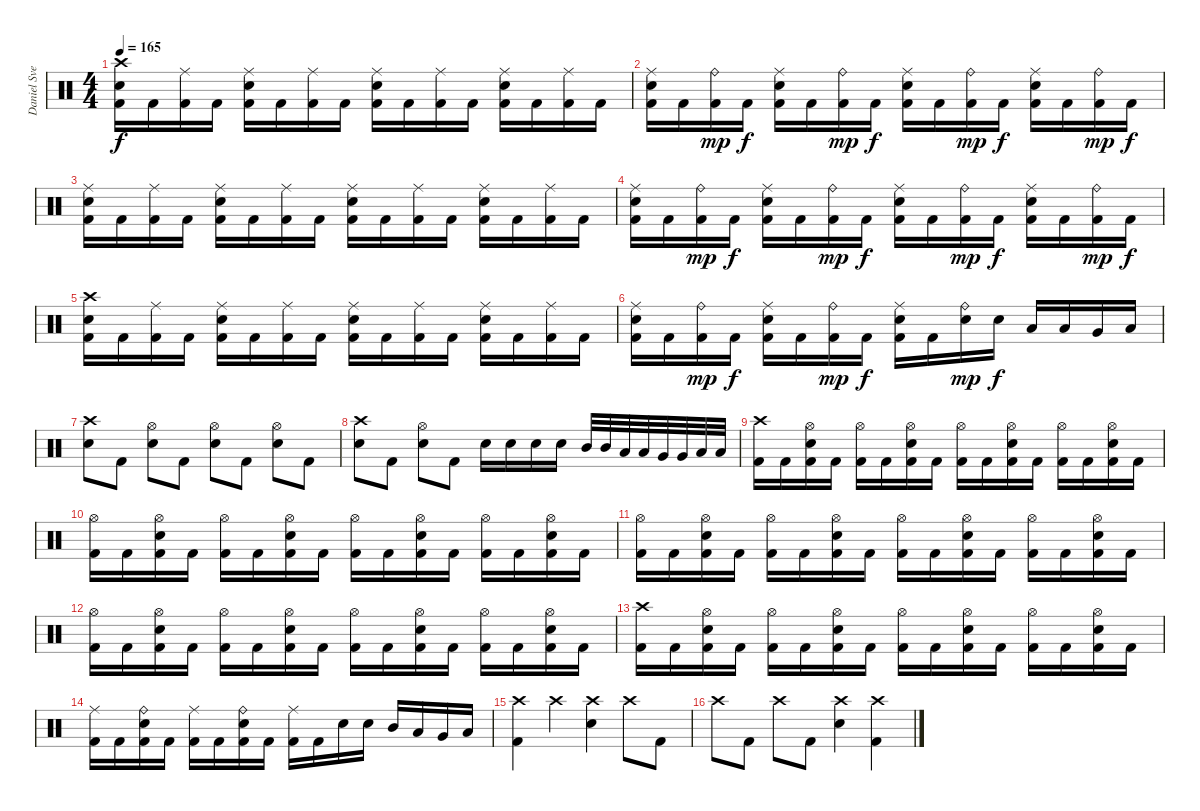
\track ("Daniel Svensson" "Daniel Sve") {instrument percussion}
\staff {score}
\articulation defaults
\ts (4 4)
\tempo 165
\clef neutral
\ks c
("Crash high (hit)" "Electric Snare (hit)" "Kick (hit) 2").16{dy f} "Kick (hit) 2".16 ("Ride (middle)" "Kick (hit) 2").16 "Kick (hit) 2".16 ("Ride (middle)" "Electric Snare (hit)" "Kick (hit) 2").16 "Kick (hit) 2".16 ("Ride (middle)" "Kick (hit) 2").16 "Kick (hit) 2".16 ("Ride (middle)" "Electric Snare (hit)" "Kick (hit) 2").16 "Kick (hit) 2".16 ("Ride (middle)" "Kick (hit) 2").16 "Kick (hit) 2".16 ("Ride (middle)" "Electric Snare (hit)" "Kick (hit) 2").16 "Kick (hit) 2".16 ("Ride (middle)" "Kick (hit) 2").16 "Kick (hit) 2".16 |
("Ride (middle)" "Electric Snare (hit)" "Kick (hit) 2").16 "Kick (hit) 2".16 ("Ride (bell)" "Kick (hit) 2").16{dy mp} "Kick (hit) 2".16{dy f} ("Ride (middle)" "Electric Snare (hit)" "Kick (hit) 2").16 "Kick (hit) 2".16 ("Ride (bell)" "Kick (hit) 2").16{dy mp} "Kick (hit) 2".16{dy f} ("Ride (middle)" "Electric Snare (hit)" "Kick (hit) 2").16 "Kick (hit) 2".16 ("Ride (bell)" "Kick (hit) 2").16{dy mp} "Kick (hit) 2".16{dy f} ("Ride (middle)" "Electric Snare (hit)" "Kick (hit) 2").16 "Kick (hit) 2".16 ("Ride (bell)" "Kick (hit) 2").16{dy mp} "Kick (hit) 2".16{dy f} |
("Ride (middle)" "Electric Snare (hit)" "Kick (hit) 2").16 "Kick (hit) 2".16 ("Ride (middle)" "Kick (hit) 2").16 "Kick (hit) 2".16 ("Ride (middle)" "Electric Snare (hit)" "Kick (hit) 2").16 "Kick (hit) 2".16 ("Ride (middle)" "Kick (hit) 2").16 "Kick (hit) 2".16 ("Ride (middle)" "Electric Snare (hit)" "Kick (hit) 2").16 "Kick (hit) 2".16 ("Ride (middle)" "Kick (hit) 2").16 "Kick (hit) 2".16 ("Ride (middle)" "Electric Snare (hit)" "Kick (hit) 2").16 "Kick (hit) 2".16 ("Ride (middle)" "Kick (hit) 2").16 "Kick (hit) 2".16 |
("Ride (middle)" "Electric Snare (hit)" "Kick (hit) 2").16 "Kick (hit) 2".16 ("Ride (bell)" "Kick (hit) 2").16{dy mp} "Kick (hit) 2".16{dy f} ("Ride (middle)" "Electric Snare (hit)" "Kick (hit) 2").16 "Kick (hit) 2".16 ("Ride (bell)" "Kick (hit) 2").16{dy mp} "Kick (hit) 2".16{dy f} ("Ride (middle)" "Electric Snare (hit)" "Kick (hit) 2").16 "Kick (hit) 2".16 ("Ride (bell)" "Kick (hit) 2").16{dy mp} "Kick (hit) 2".16{dy f} ("Ride (middle)" "Electric Snare (hit)" "Kick (hit) 2").16 "Kick (hit) 2".16 ("Ride (bell)" "Kick (hit) 2").16{dy mp} "Kick (hit) 2".16{dy f} |
("Crash high (hit)" "Electric Snare (hit)" "Kick (hit) 2").16 "Kick (hit) 2".16 ("Ride (middle)" "Kick (hit) 2").16 "Kick (hit) 2".16 ("Ride (middle)" "Electric Snare (hit)" "Kick (hit) 2").16 "Kick (hit) 2".16 ("Ride (middle)" "Kick (hit) 2").16 "Kick (hit) 2".16 ("Ride (middle)" "Electric Snare (hit)" "Kick (hit) 2").16 "Kick (hit) 2".16 ("Ride (middle)" "Kick (hit) 2").16 "Kick (hit) 2".16 ("Ride (middle)" "Electric Snare (hit)" "Kick (hit) 2").16 "Kick (hit) 2".16 ("Ride (middle)" "Kick (hit) 2").16 "Kick (hit) 2".16 |
("Ride (middle)" "Electric Snare (hit)" "Kick (hit) 2").16 "Kick (hit) 2".16 ("Ride (bell)" "Kick (hit) 2").16{dy mp} "Kick (hit) 2".16{dy f} ("Ride (middle)" "Electric Snare (hit)" "Kick (hit) 2").16 "Kick (hit) 2".16 ("Ride (bell)" "Kick (hit) 2").16{dy mp} "Kick (hit) 2".16{dy f} ("Ride (middle)" "Electric Snare (hit)" "Kick (hit) 2").16 "Kick (hit) 2".16 ("Ride (bell)" "Electric Snare (hit)").16{dy mp} "Electric Snare (hit)".16{dy f} "Low Tom (hit)".16 "Low Tom (hit)".16 "Very Low Tom (hit)".16 "Low Floor Tom (hit)".16 |
("Crash high (hit)" "Electric Snare (hit)").8 "Kick (hit) 2".8 ("Hi-Hat (open)" "Electric Snare (hit)").8 "Kick (hit) 2".8 ("Hi-Hat (open)" "Electric Snare (hit)").8 "Kick (hit) 2".8 ("Hi-Hat (open)" "Electric Snare (hit)").8 "Kick (hit) 2".8 |
("Crash high (hit)" "Electric Snare (hit)").8 "Kick (hit) 2".8 ("Hi-Hat (open)" "Electric Snare (hit)").8 "Kick (hit) 2".8 "Electric Snare (hit)".16 "Electric Snare (hit)".16 "Electric Snare (hit)".16 "Electric Snare (hit)".16 "Mid Tom (hit)".32 "Mid Tom (hit)".32 "Low Tom (hit)".32 "Low Tom (hit)".32 "Very Low Tom (hit)".32 "Very Low Tom (hit)".32 "Low Floor Tom (hit)".32 "Low Floor Tom (hit)".32 |
("Crash high (hit)" "Kick (hit) 2").16 "Kick (hit) 2".16 ("Hi-Hat (open)" "Electric Snare (hit)" "Kick (hit) 2").16 "Kick (hit) 2".16 ("Hi-Hat (open)" "Kick (hit) 2").16 "Kick (hit) 2".16 ("Hi-Hat (open)" "Electric Snare (hit)" "Kick (hit) 2").16 "Kick (hit) 2".16 ("Hi-Hat (open)" "Kick (hit) 2").16 "Kick (hit) 2".16 ("Hi-Hat (open)" "Electric Snare (hit)" "Kick (hit) 2").16 "Kick (hit) 2".16 ("Hi-Hat (open)" "Kick (hit) 2").16 "Kick (hit) 2".16 ("Hi-Hat (open)" "Electric Snare (hit)" "Kick (hit) 2").16 "Kick (hit) 2".16 |
("Hi-Hat (open)" "Kick (hit) 2").16 "Kick (hit) 2".16 ("Hi-Hat (open)" "Electric Snare (hit)" "Kick (hit) 2").16 "Kick (hit) 2".16 ("Hi-Hat (open)" "Kick (hit) 2").16 "Kick (hit) 2".16 ("Hi-Hat (open)" "Electric Snare (hit)" "Kick (hit) 2").16 "Kick (hit) 2".16 ("Hi-Hat (open)" "Kick (hit) 2").16 "Kick (hit) 2".16 ("Hi-Hat (open)" "Electric Snare (hit)" "Kick (hit) 2").16 "Kick (hit) 2".16 ("Hi-Hat (open)" "Kick (hit) 2").16 "Kick (hit) 2".16 ("Hi-Hat (open)" "Electric Snare (hit)" "Kick (hit) 2").16 "Kick (hit) 2".16 |
("Hi-Hat (open)" "Kick (hit) 2").16 "Kick (hit) 2".16 ("Hi-Hat (open)" "Electric Snare (hit)" "Kick (hit) 2").16 "Kick (hit) 2".16 ("Hi-Hat (open)" "Kick (hit) 2").16 "Kick (hit) 2".16 ("Hi-Hat (open)" "Electric Snare (hit)" "Kick (hit) 2").16 "Kick (hit) 2".16 ("Hi-Hat (open)" "Kick (hit) 2").16 "Kick (hit) 2".16 ("Hi-Hat (open)" "Electric Snare (hit)" "Kick (hit) 2").16 "Kick (hit) 2".16 ("Hi-Hat (open)" "Kick (hit) 2").16 "Kick (hit) 2".16 ("Hi-Hat (open)" "Electric Snare (hit)" "Kick (hit) 2").16 "Kick (hit) 2".16 |
("Hi-Hat (open)" "Kick (hit) 2").16 "Kick (hit) 2".16 ("Hi-Hat (open)" "Electric Snare (hit)" "Kick (hit) 2").16 "Kick (hit) 2".16 ("Hi-Hat (open)" "Kick (hit) 2").16 "Kick (hit) 2".16 ("Hi-Hat (open)" "Electric Snare (hit)" "Kick (hit) 2").16 "Kick (hit) 2".16 ("Hi-Hat (open)" "Kick (hit) 2").16 "Kick (hit) 2".16 ("Hi-Hat (open)" "Electric Snare (hit)" "Kick (hit) 2").16 "Kick (hit) 2".16 ("Hi-Hat (open)" "Kick (hit) 2").16 "Kick (hit) 2".16 ("Hi-Hat (open)" "Electric Snare (hit)" "Kick (hit) 2").16 "Kick (hit) 2".16 |
("Crash high (hit)" "Kick (hit) 2").16 "Kick (hit) 2".16 ("Hi-Hat (open)" "Electric Snare (hit)" "Kick (hit) 2").16 "Kick (hit) 2".16 ("Hi-Hat (open)" "Kick (hit) 2").16 "Kick (hit) 2".16 ("Hi-Hat (open)" "Electric Snare (hit)" "Kick (hit) 2").16 "Kick (hit) 2".16 ("Hi-Hat (open)" "Kick (hit) 2").16 "Kick (hit) 2".16 ("Hi-Hat (open)" "Electric Snare (hit)" "Kick (hit) 2").16 "Kick (hit) 2".16 ("Hi-Hat (open)" "Kick (hit) 2").16 "Kick (hit) 2".16 ("Hi-Hat (open)" "Electric Snare (hit)" "Kick (hit) 2").16 "Kick (hit) 2".16 |
("Ride (middle)" "Kick (hit) 2").16 "Kick (hit) 2".16 ("Ride (bell)" "Electric Snare (hit)" "Kick (hit) 2").16 "Kick (hit) 2".16 ("Ride (middle)" "Kick (hit) 2").16 "Kick (hit) 2".16 ("Ride (bell)" "Electric Snare (hit)" "Kick (hit) 2").16 "Kick (hit) 2".16 ("Ride (middle)" "Kick (hit) 2").16 "Kick (hit) 2".16 "Electric Snare (hit)".16 "Electric Snare (hit)".16 "Mid Tom (hit)".16 "Low Tom (hit)".16 "Very Low Tom (hit)".16 "Low Floor Tom (hit)".16 |
("Crash high (hit)" "Kick (hit) 2").4 "Crash high (hit)".4 ("Crash high (hit)" "Electric Snare (hit)").4 "Crash high (hit)".8 "Kick (hit) 2".8 |
"Crash high (hit)".8 "Kick (hit) 2".8 "Crash high (hit)".8 "Kick (hit) 2".8 ("Crash high (hit)" "Electric Snare (hit)").4 ("Crash high (hit)" "Kick (hit) 2").4
